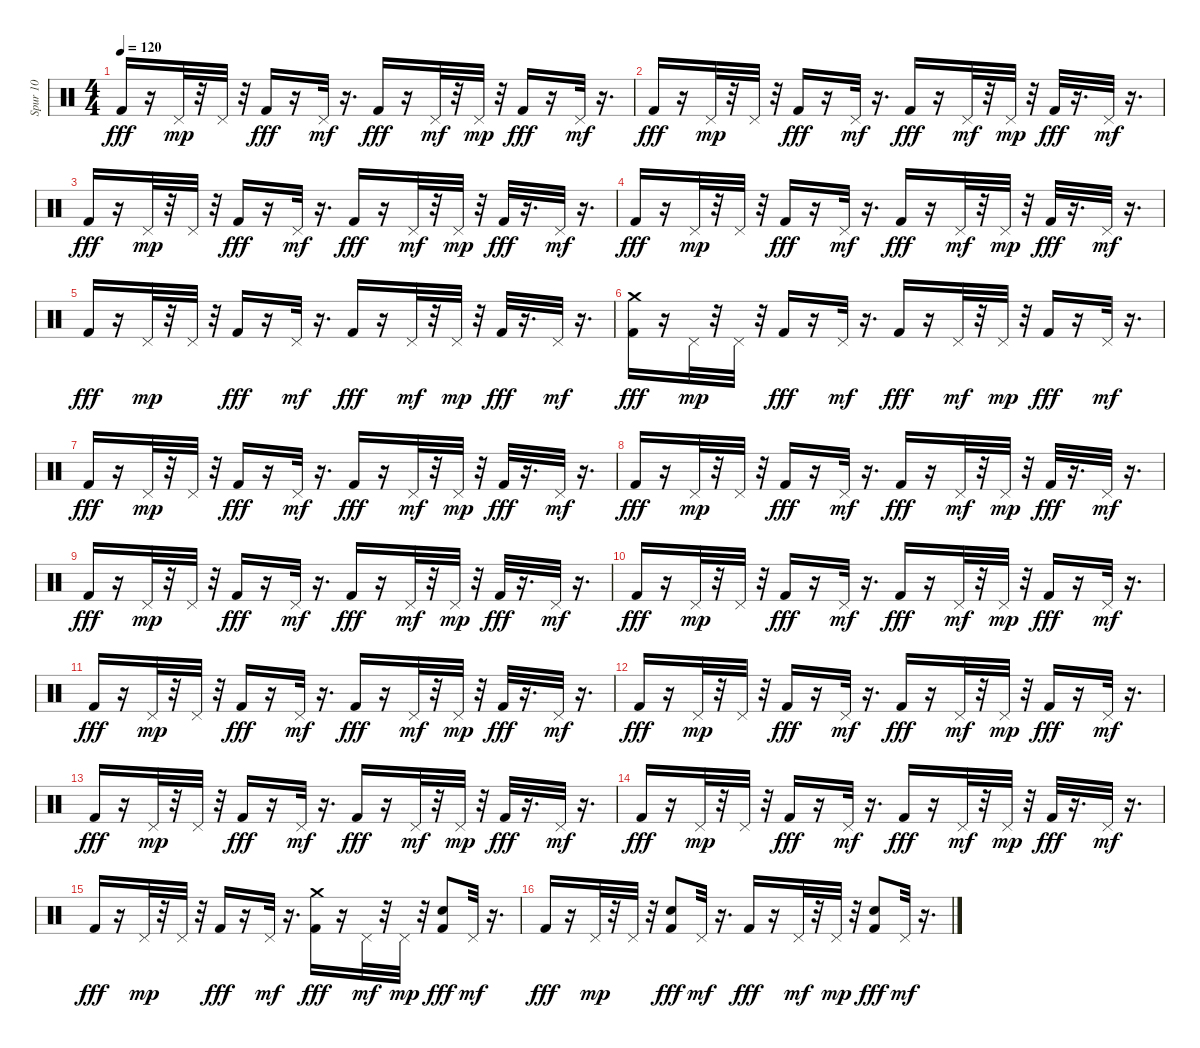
\track ("Spur 10" "Spur 10") {instrument percussion}
\staff {score}
\articulation defaults
\ts (4 4)
\tempo 120
\clef neutral
\ks c "Kick (hit) 2".16{dy fff}
r.16 "Pedal Hi-Hat (hit)".32{dy mp} r.32 "Pedal Hi-Hat (hit)".32 r.32 "Kick (hit) 2".16{dy fff} r.16 "Pedal Hi-Hat (hit)".32{dy mf} r.16{d} "Kick (hit) 2".16{dy fff} r.16 "Pedal Hi-Hat (hit)".32{dy mf} r.32 "Pedal Hi-Hat (hit)".32{dy mp} r.32 "Kick (hit) 2".16{dy fff} r.16 "Pedal Hi-Hat (hit)".32{dy mf} r.16{d} |
"Kick (hit) 2".16{dy fff} r.16 "Pedal Hi-Hat (hit)".32{dy mp} r.32 "Pedal Hi-Hat (hit)".32 r.32 "Kick (hit) 2".16{dy fff} r.16 "Pedal Hi-Hat (hit)".32{dy mf} r.16{d} "Kick (hit) 2".16{dy fff} r.16 "Pedal Hi-Hat (hit)".32{dy mf} r.32 "Pedal Hi-Hat (hit)".32{dy mp} r.32 "Kick (hit) 2".32{dy fff} r.16{d} "Pedal Hi-Hat (hit)".32{dy mf} r.16{d} |
"Kick (hit) 2".16{dy fff} r.16 "Pedal Hi-Hat (hit)".32{dy mp} r.32 "Pedal Hi-Hat (hit)".32 r.32 "Kick (hit) 2".16{dy fff} r.16 "Pedal Hi-Hat (hit)".32{dy mf} r.16{d} "Kick (hit) 2".16{dy fff} r.16 "Pedal Hi-Hat (hit)".32{dy mf} r.32 "Pedal Hi-Hat (hit)".32{dy mp} r.32 "Kick (hit) 2".32{dy fff} r.16{d} "Pedal Hi-Hat (hit)".32{dy mf} r.16{d} |
"Kick (hit) 2".16{dy fff} r.16 "Pedal Hi-Hat (hit)".32{dy mp} r.32 "Pedal Hi-Hat (hit)".32 r.32 "Kick (hit) 2".16{dy fff} r.16 "Pedal Hi-Hat (hit)".32{dy mf} r.16{d} "Kick (hit) 2".16{dy fff} r.16 "Pedal Hi-Hat (hit)".32{dy mf} r.32 "Pedal Hi-Hat (hit)".32{dy mp} r.32 "Kick (hit) 2".32{dy fff} r.16{d} "Pedal Hi-Hat (hit)".32{dy mf} r.16{d} |
"Kick (hit) 2".16{dy fff} r.16 "Pedal Hi-Hat (hit)".32{dy mp} r.32 "Pedal Hi-Hat (hit)".32 r.32 "Kick (hit) 2".16{dy fff} r.16 "Pedal Hi-Hat (hit)".32{dy mf} r.16{d} "Kick (hit) 2".16{dy fff} r.16 "Pedal Hi-Hat (hit)".32{dy mf} r.32 "Pedal Hi-Hat (hit)".32{dy mp} r.32 "Kick (hit) 2".32{dy fff} r.16{d} "Pedal Hi-Hat (hit)".32{dy mf} r.16{d} |
("Kick (hit) 2" "Crash medium (hit)").16{dy fff} r.16 "Pedal Hi-Hat (hit)".32{dy mp} r.32 "Pedal Hi-Hat (hit)".32 r.32 "Kick (hit) 2".16{dy fff} r.16 "Pedal Hi-Hat (hit)".32{dy mf} r.16{d} "Kick (hit) 2".16{dy fff} r.16 "Pedal Hi-Hat (hit)".32{dy mf} r.32 "Pedal Hi-Hat (hit)".32{dy mp} r.32 "Kick (hit) 2".16{dy fff} r.16 "Pedal Hi-Hat (hit)".32{dy mf} r.16{d} |
"Kick (hit) 2".16{dy fff} r.16 "Pedal Hi-Hat (hit)".32{dy mp} r.32 "Pedal Hi-Hat (hit)".32 r.32 "Kick (hit) 2".16{dy fff} r.16 "Pedal Hi-Hat (hit)".32{dy mf} r.16{d} "Kick (hit) 2".16{dy fff} r.16 "Pedal Hi-Hat (hit)".32{dy mf} r.32 "Pedal Hi-Hat (hit)".32{dy mp} r.32 "Kick (hit) 2".32{dy fff} r.16{d} "Pedal Hi-Hat (hit)".32{dy mf} r.16{d} |
"Kick (hit) 2".16{dy fff} r.16 "Pedal Hi-Hat (hit)".32{dy mp} r.32 "Pedal Hi-Hat (hit)".32 r.32 "Kick (hit) 2".16{dy fff} r.16 "Pedal Hi-Hat (hit)".32{dy mf} r.16{d} "Kick (hit) 2".16{dy fff} r.16 "Pedal Hi-Hat (hit)".32{dy mf} r.32 "Pedal Hi-Hat (hit)".32{dy mp} r.32 "Kick (hit) 2".32{dy fff} r.16{d} "Pedal Hi-Hat (hit)".32{dy mf} r.16{d} |
"Kick (hit) 2".16{dy fff} r.16 "Pedal Hi-Hat (hit)".32{dy mp} r.32 "Pedal Hi-Hat (hit)".32 r.32 "Kick (hit) 2".16{dy fff} r.16 "Pedal Hi-Hat (hit)".32{dy mf} r.16{d} "Kick (hit) 2".16{dy fff} r.16 "Pedal Hi-Hat (hit)".32{dy mf} r.32 "Pedal Hi-Hat (hit)".32{dy mp} r.32 "Kick (hit) 2".32{dy fff} r.16{d} "Pedal Hi-Hat (hit)".32{dy mf} r.16{d} |
"Kick (hit) 2".16{dy fff} r.16 "Pedal Hi-Hat (hit)".32{dy mp} r.32 "Pedal Hi-Hat (hit)".32 r.32 "Kick (hit) 2".16{dy fff} r.16 "Pedal Hi-Hat (hit)".32{dy mf} r.16{d} "Kick (hit) 2".16{dy fff} r.16 "Pedal Hi-Hat (hit)".32{dy mf} r.32 "Pedal Hi-Hat (hit)".32{dy mp} r.32 "Kick (hit) 2".16{dy fff} r.16 "Pedal Hi-Hat (hit)".32{dy mf} r.16{d} |
"Kick (hit) 2".16{dy fff} r.16 "Pedal Hi-Hat (hit)".32{dy mp} r.32 "Pedal Hi-Hat (hit)".32 r.32 "Kick (hit) 2".16{dy fff} r.16 "Pedal Hi-Hat (hit)".32{dy mf} r.16{d} "Kick (hit) 2".16{dy fff} r.16 "Pedal Hi-Hat (hit)".32{dy mf} r.32 "Pedal Hi-Hat (hit)".32{dy mp} r.32 "Kick (hit) 2".32{dy fff} r.16{d} "Pedal Hi-Hat (hit)".32{dy mf} r.16{d} |
"Kick (hit) 2".16{dy fff} r.16 "Pedal Hi-Hat (hit)".32{dy mp} r.32 "Pedal Hi-Hat (hit)".32 r.32 "Kick (hit) 2".16{dy fff} r.16 "Pedal Hi-Hat (hit)".32{dy mf} r.16{d} "Kick (hit) 2".16{dy fff} r.16 "Pedal Hi-Hat (hit)".32{dy mf} r.32 "Pedal Hi-Hat (hit)".32{dy mp} r.32 "Kick (hit) 2".16{dy fff} r.16 "Pedal Hi-Hat (hit)".32{dy mf} r.16{d} |
"Kick (hit) 2".16{dy fff} r.16 "Pedal Hi-Hat (hit)".32{dy mp} r.32 "Pedal Hi-Hat (hit)".32 r.32 "Kick (hit) 2".16{dy fff} r.16 "Pedal Hi-Hat (hit)".32{dy mf} r.16{d} "Kick (hit) 2".16{dy fff} r.16 "Pedal Hi-Hat (hit)".32{dy mf} r.32 "Pedal Hi-Hat (hit)".32{dy mp} r.32 "Kick (hit) 2".32{dy fff} r.16{d} "Pedal Hi-Hat (hit)".32{dy mf} r.16{d} |
"Kick (hit) 2".16{dy fff} r.16 "Pedal Hi-Hat (hit)".32{dy mp} r.32 "Pedal Hi-Hat (hit)".32 r.32 "Kick (hit) 2".16{dy fff} r.16 "Pedal Hi-Hat (hit)".32{dy mf} r.16{d} "Kick (hit) 2".16{dy fff} r.16 "Pedal Hi-Hat (hit)".32{dy mf} r.32 "Pedal Hi-Hat (hit)".32{dy mp} r.32 "Kick (hit) 2".32{dy fff} r.16{d} "Pedal Hi-Hat (hit)".32{dy mf} r.16{d} |
"Kick (hit) 2".16{dy fff} r.16 "Pedal Hi-Hat (hit)".32{dy mp} r.32 "Pedal Hi-Hat (hit)".32 r.32 "Kick (hit) 2".16{dy fff} r.16 "Pedal Hi-Hat (hit)".32{dy mf} r.16{d} ("Kick (hit) 2" "Crash medium (hit)").16{dy fff} r.16 "Pedal Hi-Hat (hit)".32{dy mf} r.32 "Pedal Hi-Hat (hit)".32{dy mp} r.32 ("Electric Snare (hit)" "Kick (hit) 2").8{dy fff} "Pedal Hi-Hat (hit)".32{dy mf} r.16{d} |
"Kick (hit) 2".16{dy fff} r.16 "Pedal Hi-Hat (hit)".32{dy mp} r.32 "Pedal Hi-Hat (hit)".32 r.32 ("Electric Snare (hit)" "Kick (hit) 2").8{dy fff} "Pedal Hi-Hat (hit)".32{dy mf} r.16{d} "Kick (hit) 2".16{dy fff} r.16 "Pedal Hi-Hat (hit)".32{dy mf} r.32 "Pedal Hi-Hat (hit)".32{dy mp} r.32 ("Electric Snare (hit)" "Kick (hit) 2").8{dy fff} "Pedal Hi-Hat (hit)".32{dy mf} r.16{d}
